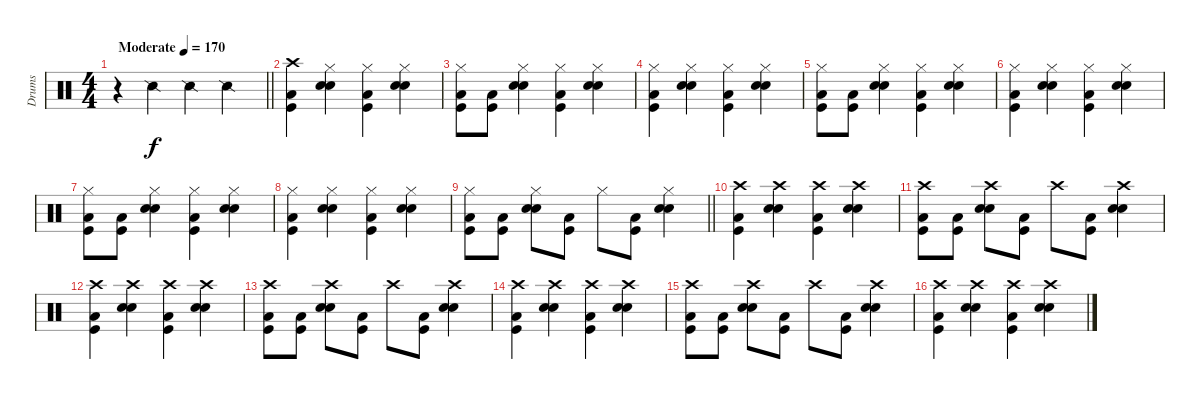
\track ("Drums" "Drums") {instrument percussion}
\staff {score}
\articulation defaults
\ts (4 4)
\tempo (170 "Moderate")
\clef neutral
\barLineRight lightlight
\ks c
r.4{dy f} "Snare (side stick) 2".4 "Snare (side stick) 2".4 "Snare (side stick) 2".4 |
("Crash high (hit)" "Kick (hit)" "Low Tom (hit)").4 ("Hi-Hat (closed)" "Snare (hit) 2" "Electric Snare (hit)").4 ("Hi-Hat (closed)" "Kick (hit)" "Low Tom (hit)").4 ("Hi-Hat (closed)" "Snare (hit) 2" "Electric Snare (hit)").4 |
("Hi-Hat (closed)" "Kick (hit)" "Low Tom (hit)").8 ("Kick (hit)" "Low Tom (hit)").8 ("Hi-Hat (closed)" "Snare (hit) 2" "Electric Snare (hit)").4 ("Hi-Hat (closed)" "Kick (hit)" "Low Tom (hit)").4 ("Hi-Hat (closed)" "Snare (hit) 2" "Electric Snare (hit)").4 |
("Hi-Hat (closed)" "Kick (hit)" "Low Tom (hit)").4 ("Hi-Hat (closed)" "Snare (hit) 2" "Electric Snare (hit)").4 ("Hi-Hat (closed)" "Kick (hit)" "Low Tom (hit)").4 ("Hi-Hat (closed)" "Snare (hit) 2" "Electric Snare (hit)").4 |
("Hi-Hat (closed)" "Kick (hit)" "Low Tom (hit)").8 ("Kick (hit)" "Low Tom (hit)").8 ("Hi-Hat (closed)" "Snare (hit) 2" "Electric Snare (hit)").4 ("Hi-Hat (closed)" "Kick (hit)" "Low Tom (hit)").4 ("Hi-Hat (closed)" "Snare (hit) 2" "Electric Snare (hit)").4 |
("Hi-Hat (closed)" "Kick (hit)" "Low Tom (hit)").4 ("Hi-Hat (closed)" "Snare (hit) 2" "Electric Snare (hit)").4 ("Hi-Hat (closed)" "Kick (hit)" "Low Tom (hit)").4 ("Hi-Hat (closed)" "Snare (hit) 2" "Electric Snare (hit)").4 |
("Hi-Hat (closed)" "Kick (hit)" "Low Tom (hit)").8 ("Kick (hit)" "Low Tom (hit)").8 ("Hi-Hat (closed)" "Snare (hit) 2" "Electric Snare (hit)").4 ("Hi-Hat (closed)" "Kick (hit)" "Low Tom (hit)").4 ("Hi-Hat (closed)" "Snare (hit) 2" "Electric Snare (hit)").4 |
("Hi-Hat (closed)" "Kick (hit)" "Low Tom (hit)").4 ("Hi-Hat (closed)" "Snare (hit) 2" "Electric Snare (hit)").4 ("Hi-Hat (closed)" "Kick (hit)" "Low Tom (hit)").4 ("Hi-Hat (closed)" "Snare (hit) 2" "Electric Snare (hit)").4 |
\barLineRight lightlight
("Hi-Hat (closed)" "Kick (hit)" "Low Tom (hit)").8 ("Kick (hit)" "Low Tom (hit)").8 ("Hi-Hat (closed)" "Snare (hit) 2" "Electric Snare (hit)").8 ("Kick (hit)" "Low Tom (hit)").8 "Hi-Hat (closed)".8 ("Kick (hit)" "Low Tom (hit)").8 ("Hi-Hat (closed)" "Snare (hit) 2" "Electric Snare (hit)").4 |
("Crash high (hit)" "Kick (hit)" "Low Tom (hit)").4 ("Crash high (hit)" "Snare (hit) 2" "Electric Snare (hit)").4 ("Crash high (hit)" "Kick (hit)" "Low Tom (hit)").4 ("Crash high (hit)" "Snare (hit) 2" "Electric Snare (hit)").4 |
("Crash high (hit)" "Kick (hit)" "Low Tom (hit)").8 ("Kick (hit)" "Low Tom (hit)").8 ("Crash high (hit)" "Snare (hit) 2" "Electric Snare (hit)").8 ("Kick (hit)" "Low Tom (hit)").8 "Crash high (hit)".8 ("Kick (hit)" "Low Tom (hit)").8 ("Crash high (hit)" "Snare (hit) 2" "Electric Snare (hit)").4 |
("Crash high (hit)" "Kick (hit)" "Low Tom (hit)").4 ("Crash high (hit)" "Snare (hit) 2" "Electric Snare (hit)").4 ("Crash high (hit)" "Kick (hit)" "Low Tom (hit)").4 ("Crash high (hit)" "Snare (hit) 2" "Electric Snare (hit)").4 |
("Crash high (hit)" "Kick (hit)" "Low Tom (hit)").8 ("Kick (hit)" "Low Tom (hit)").8 ("Crash high (hit)" "Snare (hit) 2" "Electric Snare (hit)").8 ("Kick (hit)" "Low Tom (hit)").8 "Crash high (hit)".8 ("Kick (hit)" "Low Tom (hit)").8 ("Crash high (hit)" "Snare (hit) 2" "Electric Snare (hit)").4 |
("Crash high (hit)" "Kick (hit)" "Low Tom (hit)").4 ("Crash high (hit)" "Snare (hit) 2" "Electric Snare (hit)").4 ("Crash high (hit)" "Kick (hit)" "Low Tom (hit)").4 ("Crash high (hit)" "Snare (hit) 2" "Electric Snare (hit)").4 |
("Crash high (hit)" "Kick (hit)" "Low Tom (hit)").8 ("Kick (hit)" "Low Tom (hit)").8 ("Crash high (hit)" "Snare (hit) 2" "Electric Snare (hit)").8 ("Kick (hit)" "Low Tom (hit)").8 "Crash high (hit)".8 ("Kick (hit)" "Low Tom (hit)").8 ("Crash high (hit)" "Snare (hit) 2" "Electric Snare (hit)").4 |
("Crash high (hit)" "Kick (hit)" "Low Tom (hit)").4 ("Crash high (hit)" "Snare (hit) 2" "Electric Snare (hit)").4 ("Crash high (hit)" "Kick (hit)" "Low Tom (hit)").4 ("Crash high (hit)" "Snare (hit) 2" "Electric Snare (hit)").4
